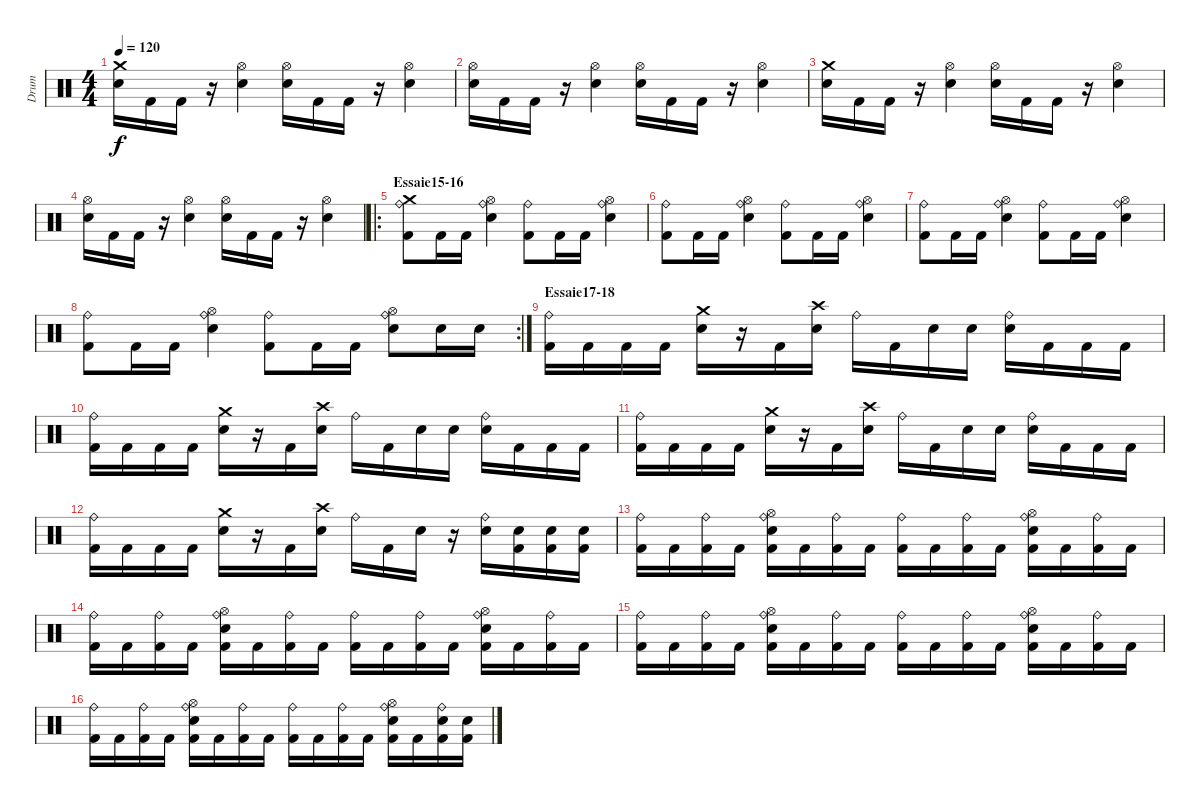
\track ("Drum" "Drum") {instrument percussion}
\staff {score}
\articulation defaults
\ts (4 4)
\tempo 120
\clef neutral
\ks c
("Crash medium (hit)" "Snare (hit) 2").16{dy f} "Kick (hit) 2".16 "Kick (hit) 2".16 r.16 ("Hi-Hat (open)" "Snare (hit) 2").4 ("Hi-Hat (open)" "Snare (hit) 2").16 "Kick (hit) 2".16 "Kick (hit) 2".16 r.16 ("Hi-Hat (open)" "Snare (hit) 2").4 |
("Hi-Hat (open)" "Snare (hit) 2").16 "Kick (hit) 2".16 "Kick (hit) 2".16 r.16 ("Hi-Hat (open)" "Snare (hit) 2").4 ("Hi-Hat (open)" "Snare (hit) 2").16 "Kick (hit) 2".16 "Kick (hit) 2".16 r.16 ("Hi-Hat (open)" "Snare (hit) 2").4 |
("Crash medium (hit)" "Snare (hit) 2").16 "Kick (hit) 2".16 "Kick (hit) 2".16 r.16 ("Hi-Hat (open)" "Snare (hit) 2").4 ("Hi-Hat (open)" "Snare (hit) 2").16 "Kick (hit) 2".16 "Kick (hit) 2".16 r.16 ("Hi-Hat (open)" "Snare (hit) 2").4 |
("Hi-Hat (open)" "Snare (hit) 2").16 "Kick (hit) 2".16 "Kick (hit) 2".16 r.16 ("Hi-Hat (open)" "Snare (hit) 2").4 ("Hi-Hat (open)" "Snare (hit) 2").16 "Kick (hit) 2".16 "Kick (hit) 2".16 r.16 ("Hi-Hat (open)" "Snare (hit) 2").4 |
\ro
\section ("" "Essaie15-16")
("Ride (bell)" "Crash medium (hit)" "Kick (hit) 2").8 "Kick (hit) 2".16 "Kick (hit) 2".16 ("Ride (bell)" "Hi-Hat (open)" "Snare (hit) 2").4 ("Ride (bell)" "Kick (hit) 2").8 "Kick (hit) 2".16 "Kick (hit) 2".16 ("Ride (bell)" "Hi-Hat (open)" "Snare (hit) 2").4 |
("Ride (bell)" "Kick (hit) 2").8 "Kick (hit) 2".16 "Kick (hit) 2".16 ("Ride (bell)" "Hi-Hat (open)" "Snare (hit) 2").4 ("Ride (bell)" "Kick (hit) 2").8 "Kick (hit) 2".16 "Kick (hit) 2".16 ("Ride (bell)" "Hi-Hat (open)" "Snare (hit) 2").4 |
("Ride (bell)" "Kick (hit) 2").8 "Kick (hit) 2".16 "Kick (hit) 2".16 ("Ride (bell)" "Hi-Hat (open)" "Snare (hit) 2").4 ("Ride (bell)" "Kick (hit) 2").8 "Kick (hit) 2".16 "Kick (hit) 2".16 ("Ride (bell)" "Hi-Hat (open)" "Snare (hit) 2").4 |
\rc 2
("Ride (bell)" "Kick (hit) 2").8 "Kick (hit) 2".16 "Kick (hit) 2".16 ("Ride (bell)" "Hi-Hat (open)" "Snare (hit) 2").4 ("Ride (bell)" "Kick (hit) 2").8 "Kick (hit) 2".16 "Kick (hit) 2".16 ("Ride (bell)" "Hi-Hat (open)" "Snare (hit) 2").8 "Snare (hit) 2".16 "Snare (hit) 2".16 |
\section ("" "Essaie17-18")
("Ride (bell)" "Kick (hit) 2").16 "Kick (hit) 2".16 "Kick (hit) 2".16 "Kick (hit) 2".16 ("Crash medium (hit)" "Snare (hit) 2").16 r.16 "Kick (hit) 2".16 ("Crash high (hit)" "Snare (hit) 2").16 "Ride (bell)".16 "Kick (hit) 2".16 "Snare (hit) 2".16 "Snare (hit) 2".16 ("Ride (bell)" "Snare (hit) 2").16 "Kick (hit) 2".16 "Kick (hit) 2".16 "Kick (hit) 2".16 |
("Ride (bell)" "Kick (hit) 2").16 "Kick (hit) 2".16 "Kick (hit) 2".16 "Kick (hit) 2".16 ("Crash medium (hit)" "Snare (hit) 2").16 r.16 "Kick (hit) 2".16 ("Crash high (hit)" "Snare (hit) 2").16 "Ride (bell)".16 "Kick (hit) 2".16 "Snare (hit) 2".16 "Snare (hit) 2".16 ("Ride (bell)" "Snare (hit) 2").16 "Kick (hit) 2".16 "Kick (hit) 2".16 "Kick (hit) 2".16 |
("Ride (bell)" "Kick (hit) 2").16 "Kick (hit) 2".16 "Kick (hit) 2".16 "Kick (hit) 2".16 ("Crash medium (hit)" "Snare (hit) 2").16 r.16 "Kick (hit) 2".16 ("Crash high (hit)" "Snare (hit) 2").16 "Ride (bell)".16 "Kick (hit) 2".16 "Snare (hit) 2".16 "Snare (hit) 2".16 ("Ride (bell)" "Snare (hit) 2").16 "Kick (hit) 2".16 "Kick (hit) 2".16 "Kick (hit) 2".16 |
("Ride (bell)" "Kick (hit) 2").16 "Kick (hit) 2".16 "Kick (hit) 2".16 "Kick (hit) 2".16 ("Crash medium (hit)" "Snare (hit) 2").16 r.16 "Kick (hit) 2".16 ("Crash high (hit)" "Snare (hit) 2").16 "Ride (bell)".16 "Kick (hit) 2".16 "Snare (hit) 2".16 r.16 ("Ride (bell)" "Snare (hit) 2").16 ("Snare (hit) 2" "Kick (hit) 2").16 ("Snare (hit) 2" "Kick (hit) 2").16 ("Snare (hit) 2" "Kick (hit) 2").16 |
("Ride (bell)" "Kick (hit) 2").16 "Kick (hit) 2".16 ("Ride (bell)" "Kick (hit) 2").16 "Kick (hit) 2".16 ("Ride (bell)" "Hi-Hat (open)" "Snare (hit) 2" "Kick (hit) 2").16 "Kick (hit) 2".16 ("Ride (bell)" "Kick (hit) 2").16 "Kick (hit) 2".16 ("Ride (bell)" "Kick (hit) 2").16 "Kick (hit) 2".16 ("Ride (bell)" "Kick (hit) 2").16 "Kick (hit) 2".16 ("Ride (bell)" "Hi-Hat (open)" "Snare (hit) 2" "Kick (hit) 2").16 "Kick (hit) 2".16 ("Ride (bell)" "Kick (hit) 2").16 "Kick (hit) 2".16 |
("Ride (bell)" "Kick (hit) 2").16 "Kick (hit) 2".16 ("Ride (bell)" "Kick (hit) 2").16 "Kick (hit) 2".16 ("Ride (bell)" "Hi-Hat (open)" "Snare (hit) 2" "Kick (hit) 2").16 "Kick (hit) 2".16 ("Ride (bell)" "Kick (hit) 2").16 "Kick (hit) 2".16 ("Ride (bell)" "Kick (hit) 2").16 "Kick (hit) 2".16 ("Ride (bell)" "Kick (hit) 2").16 "Kick (hit) 2".16 ("Ride (bell)" "Hi-Hat (open)" "Snare (hit) 2" "Kick (hit) 2").16 "Kick (hit) 2".16 ("Ride (bell)" "Kick (hit) 2").16 "Kick (hit) 2".16 |
("Ride (bell)" "Kick (hit) 2").16 "Kick (hit) 2".16 ("Ride (bell)" "Kick (hit) 2").16 "Kick (hit) 2".16 ("Ride (bell)" "Hi-Hat (open)" "Snare (hit) 2" "Kick (hit) 2").16 "Kick (hit) 2".16 ("Ride (bell)" "Kick (hit) 2").16 "Kick (hit) 2".16 ("Ride (bell)" "Kick (hit) 2").16 "Kick (hit) 2".16 ("Ride (bell)" "Kick (hit) 2").16 "Kick (hit) 2".16 ("Ride (bell)" "Hi-Hat (open)" "Snare (hit) 2" "Kick (hit) 2").16 "Kick (hit) 2".16 ("Ride (bell)" "Kick (hit) 2").16 "Kick (hit) 2".16 |
("Ride (bell)" "Kick (hit) 2").16 "Kick (hit) 2".16 ("Ride (bell)" "Kick (hit) 2").16 "Kick (hit) 2".16 ("Ride (bell)" "Hi-Hat (open)" "Snare (hit) 2" "Kick (hit) 2").16 "Kick (hit) 2".16 ("Ride (bell)" "Kick (hit) 2").16 "Kick (hit) 2".16 ("Ride (bell)" "Kick (hit) 2").16 "Kick (hit) 2".16 ("Ride (bell)" "Kick (hit) 2").16 "Kick (hit) 2".16 ("Ride (bell)" "Hi-Hat (open)" "Snare (hit) 2" "Kick (hit) 2").16 "Kick (hit) 2".16 ("Ride (bell)" "Snare (hit) 2" "Kick (hit) 2").16 ("Snare (hit) 2" "Kick (hit) 2").16
